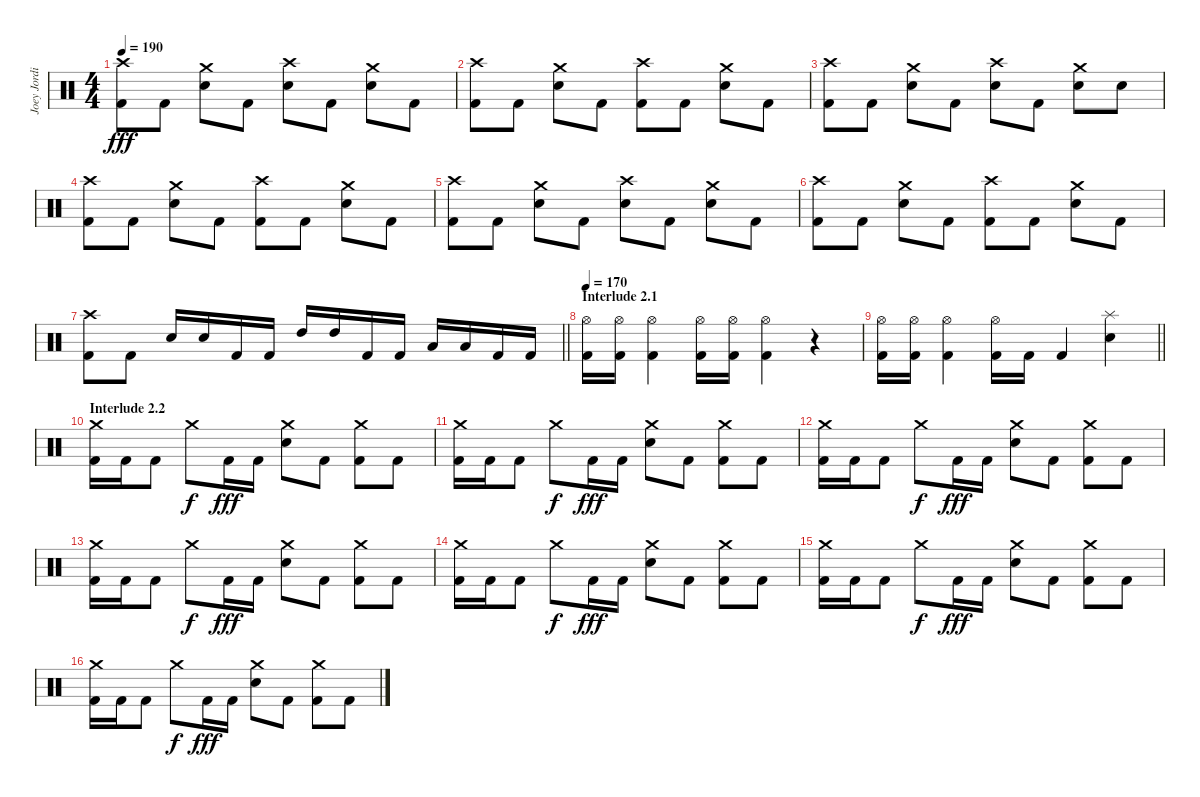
\track ("Joey Jordison" "Joey Jordi") {instrument percussion}
\staff {score}
\articulation defaults
\ts (4 4)
\tempo 190
\clef neutral
\ks c
("Crash high (hit)" "Kick (hit) 2").8{dy fff} "Kick (hit) 2".8 ("Crash medium (hit)" "Electric Snare (hit)").8 "Kick (hit) 2".8 ("Crash high (hit)" "Electric Snare (hit)").8 "Kick (hit) 2".8 ("Crash medium (hit)" "Electric Snare (hit)").8 "Kick (hit) 2".8 |
("Crash high (hit)" "Kick (hit) 2").8 "Kick (hit) 2".8 ("Crash medium (hit)" "Electric Snare (hit)").8 "Kick (hit) 2".8 ("Crash high (hit)" "Kick (hit) 2").8 "Kick (hit) 2".8 ("Crash medium (hit)" "Electric Snare (hit)").8 "Kick (hit) 2".8 |
("Crash high (hit)" "Kick (hit) 2").8 "Kick (hit) 2".8 ("Crash medium (hit)" "Electric Snare (hit)").8 "Kick (hit) 2".8 ("Crash high (hit)" "Electric Snare (hit)").8 "Kick (hit) 2".8 ("Crash medium (hit)" "Electric Snare (hit)").8 "Electric Snare (hit)".8 |
("Crash high (hit)" "Kick (hit) 2").8 "Kick (hit) 2".8 ("Crash medium (hit)" "Electric Snare (hit)").8 "Kick (hit) 2".8 ("Crash high (hit)" "Kick (hit) 2").8 "Kick (hit) 2".8 ("Crash medium (hit)" "Electric Snare (hit)").8 "Kick (hit) 2".8 |
("Crash high (hit)" "Kick (hit) 2").8 "Kick (hit) 2".8 ("Crash medium (hit)" "Electric Snare (hit)").8 "Kick (hit) 2".8 ("Crash high (hit)" "Electric Snare (hit)").8 "Kick (hit) 2".8 ("Crash medium (hit)" "Electric Snare (hit)").8 "Kick (hit) 2".8 |
("Crash high (hit)" "Kick (hit) 2").8 "Kick (hit) 2".8 ("Crash medium (hit)" "Electric Snare (hit)").8 "Kick (hit) 2".8 ("Crash high (hit)" "Kick (hit) 2").8 "Kick (hit) 2".8 ("Crash medium (hit)" "Electric Snare (hit)").8 "Kick (hit) 2".8 |
\barLineRight lightlight
("Crash high (hit)" "Kick (hit) 2").8 "Kick (hit) 2".8 "Electric Snare (hit)".16 "Electric Snare (hit)".16 "Kick (hit) 2".16 "Kick (hit) 2".16 "High Tom (hit)".16 "High Tom (hit)".16 "Kick (hit) 2".16 "Kick (hit) 2".16 "Low Tom (hit)".16 "Low Tom (hit)".16 "Kick (hit) 2".16 "Kick (hit) 2".16 |
\section ("" "Interlude 2.1")
\tempo 170
("Hi-Hat (open)" "Kick (hit) 2").16 ("Hi-Hat (open)" "Kick (hit) 2").16 ("Hi-Hat (open)" "Kick (hit) 2").4 ("Hi-Hat (open)" "Kick (hit) 2").16 ("Hi-Hat (open)" "Kick (hit) 2").16 ("Hi-Hat (open)" "Kick (hit) 2").4 r.4 |
\barLineRight lightlight
("Hi-Hat (open)" "Kick (hit) 2").16 ("Hi-Hat (open)" "Kick (hit) 2").16 ("Hi-Hat (open)" "Kick (hit) 2").4 ("Hi-Hat (open)" "Kick (hit) 2").16 "Kick (hit) 2".16 "Kick (hit) 2".4 ("Splash (hit)" "Electric Snare (hit)").4 |
\section ("" "Interlude 2.2")
("Crash medium (hit)" "Kick (hit) 2").16 "Kick (hit) 2".16 "Kick (hit) 2".8 "Crash medium (hit)".8{dy f} "Kick (hit) 2".16{dy fff} "Kick (hit) 2".16 ("Crash medium (hit)" "Electric Snare (hit)").8 "Kick (hit) 2".8 ("Crash medium (hit)" "Kick (hit) 2").8 "Kick (hit) 2".8 |
("Crash medium (hit)" "Kick (hit) 2").16 "Kick (hit) 2".16 "Kick (hit) 2".8 "Crash medium (hit)".8{dy f} "Kick (hit) 2".16{dy fff} "Kick (hit) 2".16 ("Crash medium (hit)" "Electric Snare (hit)").8 "Kick (hit) 2".8 ("Crash medium (hit)" "Kick (hit) 2").8 "Kick (hit) 2".8 |
("Crash medium (hit)" "Kick (hit) 2").16 "Kick (hit) 2".16 "Kick (hit) 2".8 "Crash medium (hit)".8{dy f} "Kick (hit) 2".16{dy fff} "Kick (hit) 2".16 ("Crash medium (hit)" "Electric Snare (hit)").8 "Kick (hit) 2".8 ("Crash medium (hit)" "Kick (hit) 2").8 "Kick (hit) 2".8 |
("Crash medium (hit)" "Kick (hit) 2").16 "Kick (hit) 2".16 "Kick (hit) 2".8 "Crash medium (hit)".8{dy f} "Kick (hit) 2".16{dy fff} "Kick (hit) 2".16 ("Crash medium (hit)" "Electric Snare (hit)").8 "Kick (hit) 2".8 ("Crash medium (hit)" "Kick (hit) 2").8 "Kick (hit) 2".8 |
("Crash medium (hit)" "Kick (hit) 2").16 "Kick (hit) 2".16 "Kick (hit) 2".8 "Crash medium (hit)".8{dy f} "Kick (hit) 2".16{dy fff} "Kick (hit) 2".16 ("Crash medium (hit)" "Electric Snare (hit)").8 "Kick (hit) 2".8 ("Crash medium (hit)" "Kick (hit) 2").8 "Kick (hit) 2".8 |
("Crash medium (hit)" "Kick (hit) 2").16 "Kick (hit) 2".16 "Kick (hit) 2".8 "Crash medium (hit)".8{dy f} "Kick (hit) 2".16{dy fff} "Kick (hit) 2".16 ("Crash medium (hit)" "Electric Snare (hit)").8 "Kick (hit) 2".8 ("Crash medium (hit)" "Kick (hit) 2").8 "Kick (hit) 2".8 |
("Crash medium (hit)" "Kick (hit) 2").16 "Kick (hit) 2".16 "Kick (hit) 2".8 "Crash medium (hit)".8{dy f} "Kick (hit) 2".16{dy fff} "Kick (hit) 2".16 ("Crash medium (hit)" "Electric Snare (hit)").8 "Kick (hit) 2".8 ("Crash medium (hit)" "Kick (hit) 2").8 "Kick (hit) 2".8
